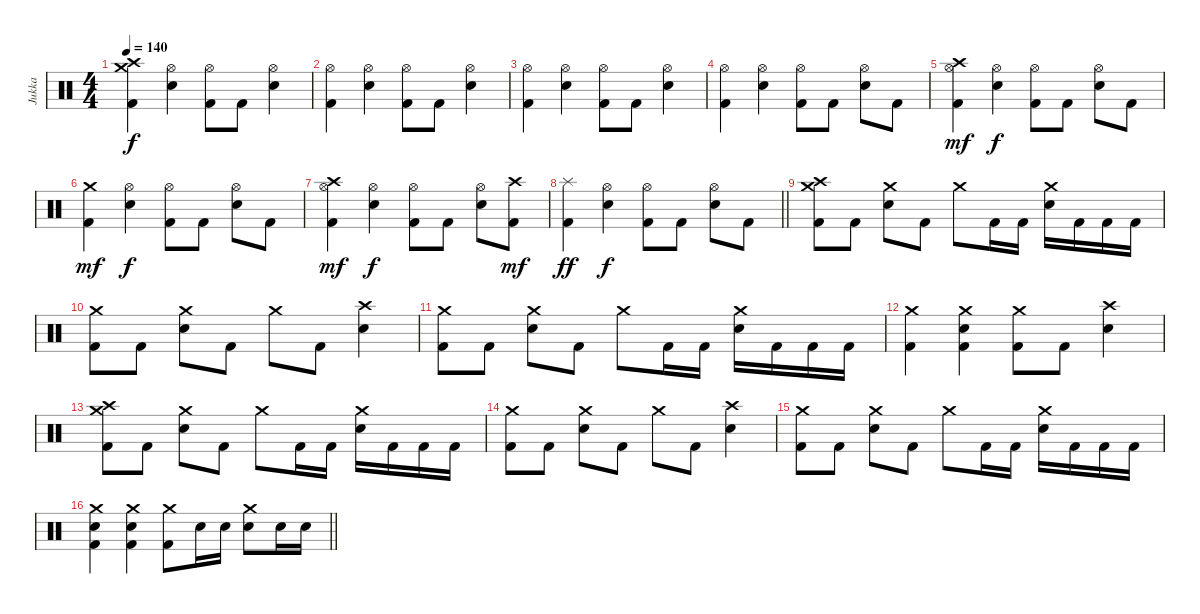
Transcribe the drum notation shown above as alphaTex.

\track ("Jukka" "Jukka") {instrument percussion}
\staff {score}
\articulation defaults
\ts (4 4)
\tempo 140
\clef neutral
\ks aminor
("Crash medium (hit)" "Crash high (hit)" "Kick (hit) 2").4{dy f} ("Hi-Hat (open)" "Electric Snare (hit)").4 ("Hi-Hat (open)" "Kick (hit) 2").8 "Kick (hit) 2".8 ("Hi-Hat (open)" "Electric Snare (hit)").4 |
("Hi-Hat (open)" "Kick (hit) 2").4 ("Hi-Hat (open)" "Electric Snare (hit)").4 ("Hi-Hat (open)" "Kick (hit) 2").8 "Kick (hit) 2".8 ("Hi-Hat (open)" "Electric Snare (hit)").4 |
("Hi-Hat (open)" "Kick (hit) 2").4 ("Hi-Hat (open)" "Electric Snare (hit)").4 ("Hi-Hat (open)" "Kick (hit) 2").8 "Kick (hit) 2".8 ("Hi-Hat (open)" "Electric Snare (hit)").4 |
("Hi-Hat (open)" "Kick (hit) 2").4 ("Hi-Hat (open)" "Electric Snare (hit)").4 ("Hi-Hat (open)" "Kick (hit) 2").8 "Kick (hit) 2".8 ("Hi-Hat (open)" "Electric Snare (hit)").8 "Kick (hit) 2".8 |
("Crash high (hit)" "Hi-Hat (open)" "Kick (hit) 2").4{dy mf} ("Hi-Hat (open)" "Electric Snare (hit)").4{dy f} ("Hi-Hat (open)" "Kick (hit) 2").8 "Kick (hit) 2".8 ("Hi-Hat (open)" "Electric Snare (hit)").8 "Kick (hit) 2".8 |
("Crash medium (hit)" "Kick (hit) 2").4{dy mf} ("Hi-Hat (open)" "Electric Snare (hit)").4{dy f} ("Hi-Hat (open)" "Kick (hit) 2").8 "Kick (hit) 2".8 ("Hi-Hat (open)" "Electric Snare (hit)").8 "Kick (hit) 2".8 |
("Crash high (hit)" "Hi-Hat (open)" "Kick (hit) 2").4{dy mf} ("Hi-Hat (open)" "Electric Snare (hit)").4{dy f} ("Hi-Hat (open)" "Kick (hit) 2").8 "Kick (hit) 2".8 ("Hi-Hat (open)" "Electric Snare (hit)").8 ("Crash high (hit)" "Kick (hit) 2").8{dy mf} |
\barLineRight lightlight
("Splash (hit)" "Kick (hit) 2").4{dy ff} ("Hi-Hat (open)" "Electric Snare (hit)").4{dy f} ("Hi-Hat (open)" "Kick (hit) 2").8 "Kick (hit) 2".8 ("Hi-Hat (open)" "Electric Snare (hit)").8 "Kick (hit) 2".8 |
\ks c
("Crash high (hit)" "Crash medium (hit)" "Kick (hit) 2").8 "Kick (hit) 2".8 ("Crash medium (hit)" "Electric Snare (hit)").8 "Kick (hit) 2".8 "Crash medium (hit)".8 "Kick (hit) 2".16 "Kick (hit) 2".16 ("Crash medium (hit)" "Electric Snare (hit)").16 "Kick (hit) 2".16 "Kick (hit) 2".16 "Kick (hit) 2".16 |
("Crash medium (hit)" "Kick (hit) 2").8 "Kick (hit) 2".8 ("Crash medium (hit)" "Electric Snare (hit)").8 "Kick (hit) 2".8 "Crash medium (hit)".8 "Kick (hit) 2".8 ("Crash high (hit)" "Electric Snare (hit)").4 |
("Crash medium (hit)" "Kick (hit) 2").8 "Kick (hit) 2".8 ("Crash medium (hit)" "Electric Snare (hit)").8 "Kick (hit) 2".8 "Crash medium (hit)".8 "Kick (hit) 2".16 "Kick (hit) 2".16 ("Crash medium (hit)" "Electric Snare (hit)").16 "Kick (hit) 2".16 "Kick (hit) 2".16 "Kick (hit) 2".16 |
("Crash medium (hit)" "Kick (hit) 2").4 ("Crash medium (hit)" "Electric Snare (hit)" "Kick (hit) 2").4 ("Crash medium (hit)" "Kick (hit) 2").8 "Kick (hit) 2".8 ("Crash high (hit)" "Electric Snare (hit)").4 |
("Crash high (hit)" "Crash medium (hit)" "Kick (hit) 2").8 "Kick (hit) 2".8 ("Crash medium (hit)" "Electric Snare (hit)").8 "Kick (hit) 2".8 "Crash medium (hit)".8 "Kick (hit) 2".16 "Kick (hit) 2".16 ("Crash medium (hit)" "Electric Snare (hit)").16 "Kick (hit) 2".16 "Kick (hit) 2".16 "Kick (hit) 2".16 |
("Crash medium (hit)" "Kick (hit) 2").8 "Kick (hit) 2".8 ("Crash medium (hit)" "Electric Snare (hit)").8 "Kick (hit) 2".8 "Crash medium (hit)".8 "Kick (hit) 2".8 ("Crash high (hit)" "Electric Snare (hit)").4 |
("Crash medium (hit)" "Kick (hit) 2").8 "Kick (hit) 2".8 ("Crash medium (hit)" "Electric Snare (hit)").8 "Kick (hit) 2".8 "Crash medium (hit)".8 "Kick (hit) 2".16 "Kick (hit) 2".16 ("Crash medium (hit)" "Electric Snare (hit)").16 "Kick (hit) 2".16 "Kick (hit) 2".16 "Kick (hit) 2".16 |
\barLineRight lightlight
("Crash medium (hit)" "Electric Snare (hit)" "Kick (hit) 2").4 ("Crash medium (hit)" "Electric Snare (hit)" "Kick (hit) 2").4 ("Crash medium (hit)" "Kick (hit) 2").8 "Electric Snare (hit)".16 "Electric Snare (hit)".16 ("Crash medium (hit)" "Electric Snare (hit)").8 "Electric Snare (hit)".16 "Electric Snare (hit)".16
